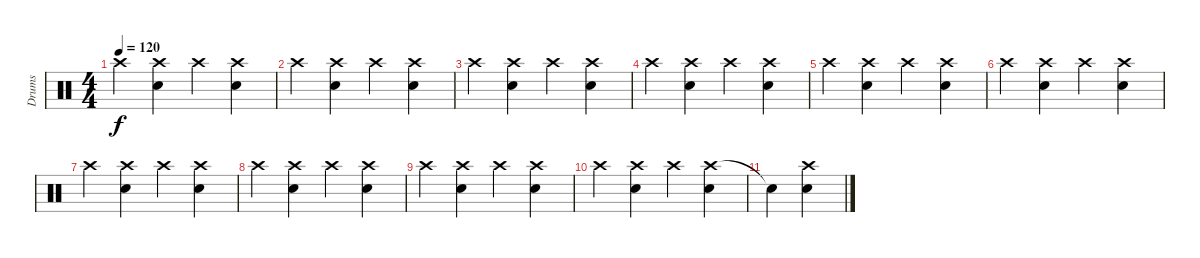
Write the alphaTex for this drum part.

\track ("Drums" "Drums") {instrument percussion}
\staff {score}
\articulation defaults
\ts (4 4)
\tempo 120
\clef neutral
\ks c "Crash high (hit)".4{dy f}
("Crash high (hit)" "Snare (hit) 2").4 "Crash high (hit)".4 ("Crash high (hit)" "Snare (hit) 2").4 |
"Crash high (hit)".4 ("Crash high (hit)" "Snare (hit) 2").4 "Crash high (hit)".4 ("Crash high (hit)" "Snare (hit) 2").4 |
"Crash high (hit)".4 ("Crash high (hit)" "Snare (hit) 2").4 "Crash high (hit)".4 ("Crash high (hit)" "Snare (hit) 2").4 |
"Crash high (hit)".4 ("Crash high (hit)" "Snare (hit) 2").4 "Crash high (hit)".4 ("Crash high (hit)" "Snare (hit) 2").4 |
"Crash high (hit)".4 ("Crash high (hit)" "Snare (hit) 2").4 "Crash high (hit)".4 ("Crash high (hit)" "Snare (hit) 2").4 |
"Crash high (hit)".4 ("Crash high (hit)" "Snare (hit) 2").4 "Crash high (hit)".4 ("Crash high (hit)" "Snare (hit) 2").4 |
"Crash high (hit)".4 ("Crash high (hit)" "Snare (hit) 2").4 "Crash high (hit)".4 ("Crash high (hit)" "Snare (hit) 2").4 |
"Crash high (hit)".4 ("Crash high (hit)" "Snare (hit) 2").4 "Crash high (hit)".4 ("Crash high (hit)" "Snare (hit) 2").4 |
"Crash high (hit)".4 ("Crash high (hit)" "Snare (hit) 2").4 "Crash high (hit)".4 ("Crash high (hit)" "Snare (hit) 2").4 |
"Crash high (hit)".4 ("Crash high (hit)" "Snare (hit) 2").4 "Crash high (hit)".4 ("Crash high (hit)" "Snare (hit) 2").4 |
"Snare (hit)"{t}.4 ("Crash high (hit)" "Snare (hit) 2").4
